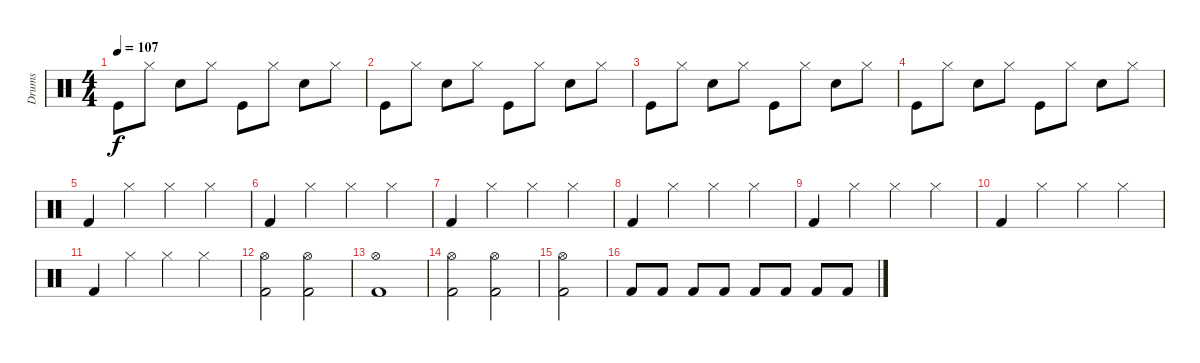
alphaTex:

\track ("Drums" "Drums") {instrument percussion}
\staff {score}
\articulation defaults
\ts (4 4)
\tempo 107
\clef neutral
\ks c "Kick (hit)".8{dy f} "Hi-Hat (closed)".8 "Snare (hit) 2".8 "Hi-Hat (closed)".8 "Kick (hit)".8 "Hi-Hat (closed)".8 "Snare (hit) 2".8 "Hi-Hat (closed)".8
|
"Kick (hit)".8 "Hi-Hat (closed)".8 "Snare (hit) 2".8 "Hi-Hat (closed)".8 "Kick (hit)".8 "Hi-Hat (closed)".8 "Snare (hit) 2".8 "Hi-Hat (closed)".8 |
"Kick (hit)".8 "Hi-Hat (closed)".8 "Snare (hit) 2".8 "Hi-Hat (closed)".8 "Kick (hit)".8 "Hi-Hat (closed)".8 "Snare (hit) 2".8 "Hi-Hat (closed)".8 |
"Kick (hit)".8 "Hi-Hat (closed)".8 "Snare (hit) 2".8 "Hi-Hat (closed)".8 "Kick (hit)".8 "Hi-Hat (closed)".8 "Snare (hit) 2".8 "Hi-Hat (closed)".8 |
"Kick (hit) 2".4 "Hi-Hat (closed)".4 "Hi-Hat (closed)".4 "Hi-Hat (closed)".4 |
"Kick (hit) 2".4 "Hi-Hat (closed)".4 "Hi-Hat (closed)".4 "Hi-Hat (closed)".4 |
"Kick (hit) 2".4 "Hi-Hat (closed)".4 "Hi-Hat (closed)".4 "Hi-Hat (closed)".4 |
"Kick (hit) 2".4 "Hi-Hat (closed)".4 "Hi-Hat (closed)".4 "Hi-Hat (closed)".4 |
"Kick (hit) 2".4 "Hi-Hat (closed)".4 "Hi-Hat (closed)".4 "Hi-Hat (closed)".4 |
"Kick (hit) 2".4 "Hi-Hat (closed)".4 "Hi-Hat (closed)".4 "Hi-Hat (closed)".4 |
"Kick (hit) 2".4 "Hi-Hat (closed)".4 "Hi-Hat (closed)".4 "Hi-Hat (closed)".4 |
("Kick (hit) 2" "Hi-Hat (open)").2 ("Kick (hit) 2" "Hi-Hat (open)").2 |
("Kick (hit) 2" "Hi-Hat (open)").1 |
("Kick (hit) 2" "Hi-Hat (open)").2 ("Kick (hit) 2" "Hi-Hat (open)").2 |
("Kick (hit) 2" "Hi-Hat (open)").2 |
"Kick (hit) 2".8 "Kick (hit) 2".8 "Kick (hit) 2".8 "Kick (hit) 2".8 "Kick (hit) 2".8 "Kick (hit) 2".8 "Kick (hit) 2".8 "Kick (hit) 2".8
